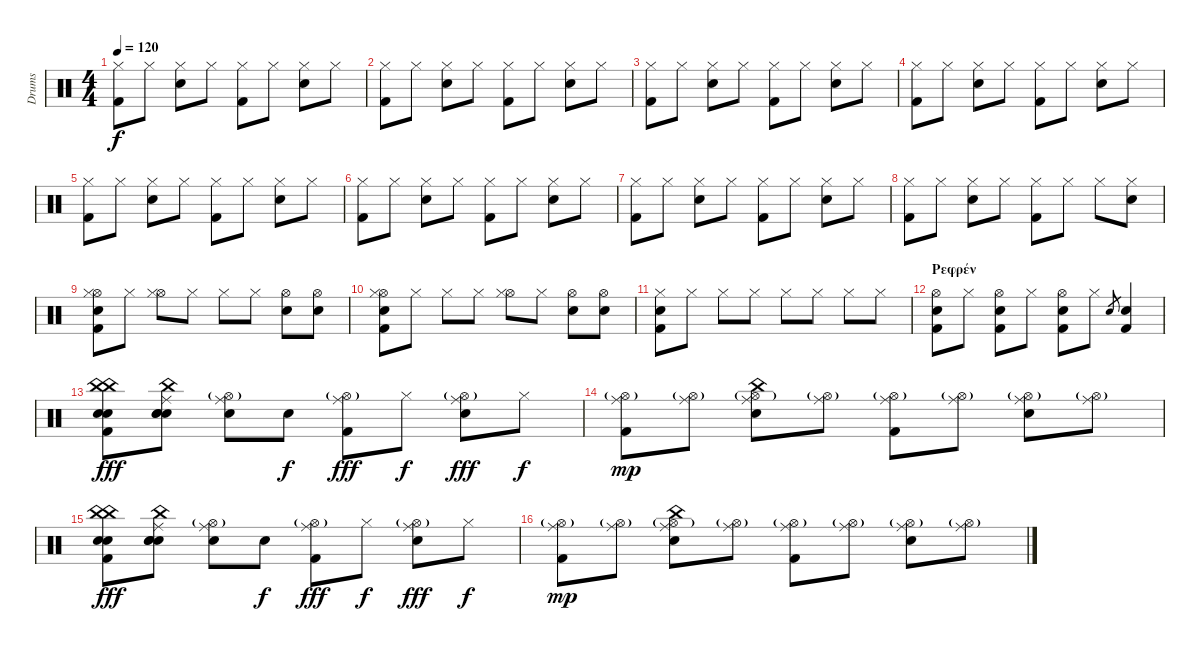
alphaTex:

\track ("Drums" "Drums") {instrument percussion}
\staff {score}
\articulation defaults
\ts (4 4)
\tempo 120
\clef neutral
\ks c
("Hi-Hat (closed)" "Kick (hit) 2").8{dy f} "Hi-Hat (closed)".8 ("Hi-Hat (closed)" "Electric Snare (hit)").8 "Hi-Hat (closed)".8 ("Hi-Hat (closed)" "Kick (hit) 2").8 "Hi-Hat (closed)".8 ("Hi-Hat (closed)" "Electric Snare (hit)").8 "Hi-Hat (closed)".8 |
("Hi-Hat (closed)" "Kick (hit) 2").8 "Hi-Hat (closed)".8 ("Hi-Hat (closed)" "Electric Snare (hit)").8 "Hi-Hat (closed)".8 ("Hi-Hat (closed)" "Kick (hit) 2").8 "Hi-Hat (closed)".8 ("Hi-Hat (closed)" "Electric Snare (hit)").8 "Hi-Hat (closed)".8 |
("Hi-Hat (closed)" "Kick (hit) 2").8 "Hi-Hat (closed)".8 ("Hi-Hat (closed)" "Electric Snare (hit)").8 "Hi-Hat (closed)".8 ("Hi-Hat (closed)" "Kick (hit) 2").8 "Hi-Hat (closed)".8 ("Hi-Hat (closed)" "Electric Snare (hit)").8 "Hi-Hat (closed)".8 |
("Hi-Hat (closed)" "Kick (hit) 2").8 "Hi-Hat (closed)".8 ("Hi-Hat (closed)" "Electric Snare (hit)").8 "Hi-Hat (closed)".8 ("Hi-Hat (closed)" "Kick (hit) 2").8 "Hi-Hat (closed)".8 ("Hi-Hat (closed)" "Electric Snare (hit)").8 "Hi-Hat (closed)".8 |
("Hi-Hat (closed)" "Kick (hit) 2").8 "Hi-Hat (closed)".8 ("Hi-Hat (closed)" "Electric Snare (hit)").8 "Hi-Hat (closed)".8 ("Hi-Hat (closed)" "Kick (hit) 2").8 "Hi-Hat (closed)".8 ("Hi-Hat (closed)" "Electric Snare (hit)").8 "Hi-Hat (closed)".8 |
("Hi-Hat (closed)" "Kick (hit) 2").8 "Hi-Hat (closed)".8 ("Hi-Hat (closed)" "Electric Snare (hit)").8 "Hi-Hat (closed)".8 ("Hi-Hat (closed)" "Kick (hit) 2").8 "Hi-Hat (closed)".8 ("Hi-Hat (closed)" "Electric Snare (hit)").8 "Hi-Hat (closed)".8 |
("Hi-Hat (closed)" "Kick (hit) 2").8 "Hi-Hat (closed)".8 ("Hi-Hat (closed)" "Electric Snare (hit)").8 "Hi-Hat (closed)".8 ("Hi-Hat (closed)" "Kick (hit) 2").8 "Hi-Hat (closed)".8 ("Hi-Hat (closed)" "Electric Snare (hit)").8 "Hi-Hat (closed)".8 |
("Hi-Hat (closed)" "Kick (hit) 2").8 "Hi-Hat (closed)".8 ("Hi-Hat (closed)" "Electric Snare (hit)").8 "Hi-Hat (closed)".8 ("Hi-Hat (closed)" "Kick (hit) 2").8 "Hi-Hat (closed)".8 "Hi-Hat (closed)".8 ("Hi-Hat (closed)" "Electric Snare (hit)").8 |
("Hi-Hat (open)" "Hi-Hat (closed)" "Electric Snare (hit)" "Kick (hit) 2").8 "Hi-Hat (closed)".8 ("Hi-Hat (open)" "Hi-Hat (closed)").8 "Hi-Hat (closed)".8 "Hi-Hat (closed)".8 "Hi-Hat (closed)".8 ("Hi-Hat (open)" "Electric Snare (hit)").8 ("Hi-Hat (open)" "Electric Snare (hit)").8 |
("Hi-Hat (open)" "Hi-Hat (closed)" "Electric Snare (hit)" "Kick (hit) 2").8 "Hi-Hat (closed)".8 "Hi-Hat (closed)".8 "Hi-Hat (closed)".8 ("Hi-Hat (open)" "Hi-Hat (closed)").8 "Hi-Hat (closed)".8 ("Hi-Hat (open)" "Electric Snare (hit)").8 ("Hi-Hat (open)" "Electric Snare (hit)").8 |
("Hi-Hat (closed)" "Electric Snare (hit)" "Kick (hit) 2").8 "Hi-Hat (closed)".8 "Hi-Hat (closed)".8 "Hi-Hat (closed)".8 "Hi-Hat (closed)".8 "Hi-Hat (closed)".8 "Hi-Hat (closed)".8 "Hi-Hat (closed)".8 |
\section ("" "Ρεφρέν")
("Hi-Hat (open)" "Electric Snare (hit)" "Kick (hit) 2").8 "Hi-Hat (closed)".8 ("Hi-Hat (open)" "Electric Snare (hit)" "Kick (hit) 2").8 "Hi-Hat (closed)".8 ("Hi-Hat (open)" "Electric Snare (hit)" "Kick (hit) 2").8 "Hi-Hat (closed)".8 "Electric Snare (hit)".8{gr} ("Electric Snare (hit)" "Kick (hit) 2").4 |
("China (hit)" "China (hit)" "Hand Clap (hit)" "Hand Clap (hit)" "Kick (hit) 2").8{dy fff} ("China (hit)" "Ride (middle)" "Snare (hit)" "Hand Clap (hit)" "Hand Clap (hit)").8 ("Hi-Hat (open)"{g} "Ride (middle)" "Electric Snare (hit)").8 "Electric Snare (hit)".8{dy f} ("Hi-Hat (open)"{g} "Ride (middle)" "Kick (hit) 2").8{dy fff} "Hi-Hat (closed)".8{dy f} ("Hi-Hat (open)"{g} "Ride (middle)" "Electric Snare (hit)").8{dy fff} "Hi-Hat (closed)".8{dy f} |
("Ride (middle)" "Hi-Hat (open)"{g} "Kick (hit) 2").8{dy mp} ("Ride (middle)" "Hi-Hat (open)"{g}).8 ("Ride (middle)" "Hi-Hat (open)"{g} "Electric Snare (hit)" "China (hit)").8 ("Ride (middle)" "Hi-Hat (open)"{g}).8 ("Ride (middle)" "Hi-Hat (open)"{g} "Kick (hit) 2").8 ("Ride (middle)" "Hi-Hat (open)"{g}).8 ("Ride (middle)" "Hi-Hat (open)"{g} "Electric Snare (hit)").8 ("Ride (middle)" "Hi-Hat (open)"{g}).8 |
("China (hit)" "China (hit)" "Hand Clap (hit)" "Hand Clap (hit)" "Kick (hit) 2").8{dy fff} ("China (hit)" "Ride (middle)" "Snare (hit)" "Hand Clap (hit)" "Hand Clap (hit)").8 ("Hi-Hat (open)"{g} "Ride (middle)" "Electric Snare (hit)").8 "Electric Snare (hit)".8{dy f} ("Hi-Hat (open)"{g} "Ride (middle)" "Kick (hit) 2").8{dy fff} "Hi-Hat (closed)".8{dy f} ("Hi-Hat (open)"{g} "Ride (middle)" "Electric Snare (hit)").8{dy fff} "Hi-Hat (closed)".8{dy f} |
("Ride (middle)" "Hi-Hat (open)"{g} "Kick (hit) 2").8{dy mp} ("Ride (middle)" "Hi-Hat (open)"{g}).8 ("Ride (middle)" "Hi-Hat (open)"{g} "Electric Snare (hit)" "China (hit)").8 ("Ride (middle)" "Hi-Hat (open)"{g}).8 ("Ride (middle)" "Hi-Hat (open)"{g} "Kick (hit) 2").8 ("Ride (middle)" "Hi-Hat (open)"{g}).8 ("Ride (middle)" "Hi-Hat (open)"{g} "Electric Snare (hit)").8 ("Ride (middle)" "Hi-Hat (open)"{g}).8
